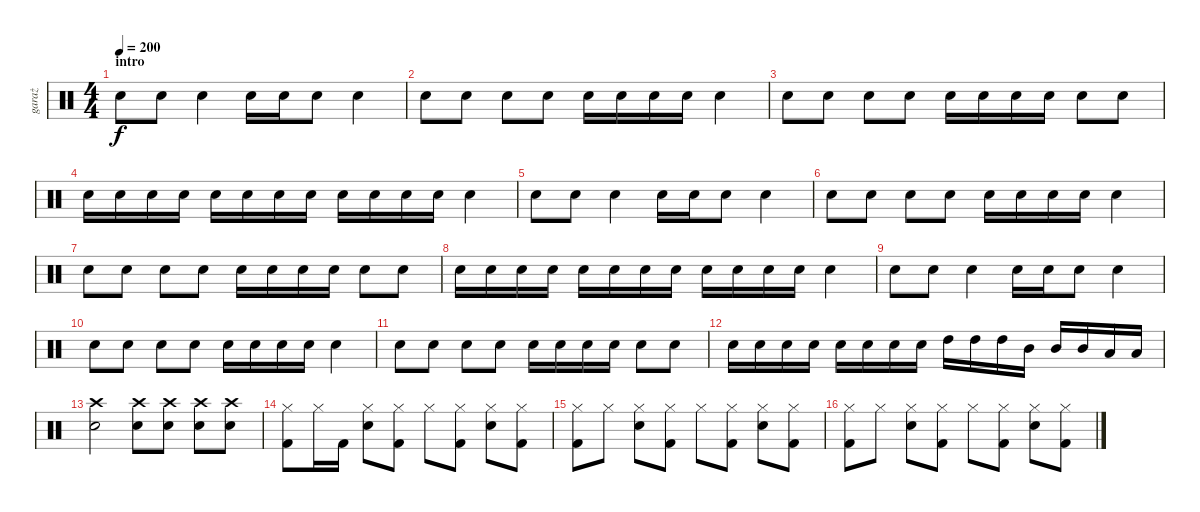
\track ("garaż" "garaż") {instrument percussion}
\staff {score}
\articulation defaults
\ts (4 4)
\section ("" "intro")
\tempo 200
\clef neutral
\ks c "Snare (hit) 2".8{dy f} "Snare (hit) 2".8 "Snare (hit) 2".4 "Snare (hit) 2".16 "Snare (hit) 2".16 "Snare (hit) 2".8 "Snare (hit) 2".4
|
"Snare (hit) 2".8 "Snare (hit) 2".8 "Snare (hit) 2".8 "Snare (hit) 2".8 "Snare (hit) 2".16 "Snare (hit) 2".16 "Snare (hit) 2".16 "Snare (hit) 2".16 "Snare (hit) 2".4 |
"Snare (hit) 2".8 "Snare (hit) 2".8 "Snare (hit) 2".8 "Snare (hit) 2".8 "Snare (hit) 2".16 "Snare (hit) 2".16 "Snare (hit) 2".16 "Snare (hit) 2".16 "Snare (hit) 2".8 "Snare (hit) 2".8 |
"Snare (hit) 2".16 "Snare (hit) 2".16 "Snare (hit) 2".16 "Snare (hit) 2".16 "Snare (hit) 2".16 "Snare (hit) 2".16 "Snare (hit) 2".16 "Snare (hit) 2".16 "Snare (hit) 2".16 "Snare (hit) 2".16 "Snare (hit) 2".16 "Snare (hit) 2".16 "Snare (hit) 2".4 |
"Snare (hit) 2".8 "Snare (hit) 2".8 "Snare (hit) 2".4 "Snare (hit) 2".16 "Snare (hit) 2".16 "Snare (hit) 2".8 "Snare (hit) 2".4 |
"Snare (hit) 2".8 "Snare (hit) 2".8 "Snare (hit) 2".8 "Snare (hit) 2".8 "Snare (hit) 2".16 "Snare (hit) 2".16 "Snare (hit) 2".16 "Snare (hit) 2".16 "Snare (hit) 2".4 |
"Snare (hit) 2".8 "Snare (hit) 2".8 "Snare (hit) 2".8 "Snare (hit) 2".8 "Snare (hit) 2".16 "Snare (hit) 2".16 "Snare (hit) 2".16 "Snare (hit) 2".16 "Snare (hit) 2".8 "Snare (hit) 2".8 |
"Snare (hit) 2".16 "Snare (hit) 2".16 "Snare (hit) 2".16 "Snare (hit) 2".16 "Snare (hit) 2".16 "Snare (hit) 2".16 "Snare (hit) 2".16 "Snare (hit) 2".16 "Snare (hit) 2".16 "Snare (hit) 2".16 "Snare (hit) 2".16 "Snare (hit) 2".16 "Snare (hit) 2".4 |
"Snare (hit) 2".8 "Snare (hit) 2".8 "Snare (hit) 2".4 "Snare (hit) 2".16 "Snare (hit) 2".16 "Snare (hit) 2".8 "Snare (hit) 2".4 |
"Snare (hit) 2".8 "Snare (hit) 2".8 "Snare (hit) 2".8 "Snare (hit) 2".8 "Snare (hit) 2".16 "Snare (hit) 2".16 "Snare (hit) 2".16 "Snare (hit) 2".16 "Snare (hit) 2".4 |
"Snare (hit) 2".8 "Snare (hit) 2".8 "Snare (hit) 2".8 "Snare (hit) 2".8 "Snare (hit) 2".16 "Snare (hit) 2".16 "Snare (hit) 2".16 "Snare (hit) 2".16 "Snare (hit) 2".8 "Snare (hit) 2".8 |
"Snare (hit) 2".16 "Snare (hit) 2".16 "Snare (hit) 2".16 "Snare (hit) 2".16 "Snare (hit) 2".16 "Snare (hit) 2".16 "Snare (hit) 2".16 "Snare (hit) 2".16 "High Tom (hit)".16 "High Tom (hit)".16 "High Tom (hit)".16 "Mid Tom (hit)".16 "Mid Tom (hit)".16 "Mid Tom (hit)".16 "Low Tom (hit)".16 "Low Tom (hit)".16 |
("Crash high (hit)" "Snare (hit) 2").2 ("Crash high (hit)" "Snare (hit) 2").8 ("Crash high (hit)" "Snare (hit) 2").8 ("Crash high (hit)" "Snare (hit) 2").8 ("Crash high (hit)" "Snare (hit) 2").8 |
("Hi-Hat (closed)" "Kick (hit) 2").8 "Hi-Hat (closed)".16 "Kick (hit) 2".16 ("Hi-Hat (closed)" "Snare (hit) 2").8 ("Hi-Hat (closed)" "Kick (hit) 2").8 "Hi-Hat (closed)".8 ("Hi-Hat (closed)" "Kick (hit) 2").8 ("Hi-Hat (closed)" "Snare (hit) 2").8 ("Hi-Hat (closed)" "Kick (hit) 2").8 |
("Hi-Hat (closed)" "Kick (hit) 2").8 "Hi-Hat (closed)".8 ("Hi-Hat (closed)" "Snare (hit) 2").8 ("Hi-Hat (closed)" "Kick (hit) 2").8 "Hi-Hat (closed)".8 ("Hi-Hat (closed)" "Kick (hit) 2").8 ("Hi-Hat (closed)" "Snare (hit) 2").8 ("Hi-Hat (closed)" "Kick (hit) 2").8 |
("Hi-Hat (closed)" "Kick (hit) 2").8 "Hi-Hat (closed)".8 ("Hi-Hat (closed)" "Snare (hit) 2").8 ("Hi-Hat (closed)" "Kick (hit) 2").8 "Hi-Hat (closed)".8 ("Hi-Hat (closed)" "Kick (hit) 2").8 ("Hi-Hat (closed)" "Snare (hit) 2").8 ("Hi-Hat (closed)" "Kick (hit) 2").8
